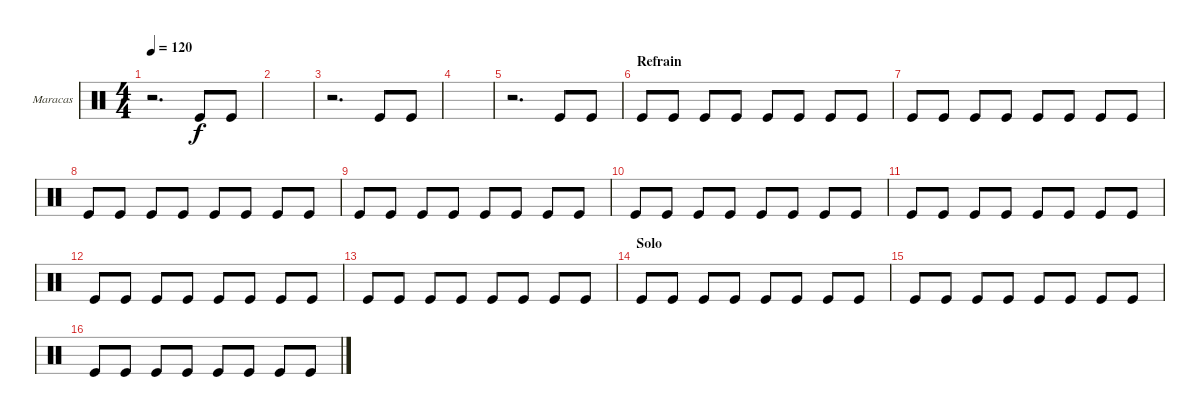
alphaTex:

\defaultSystemsLayout 4
\bracketExtendMode groupsimilarinstruments
\firstSystemTrackNameOrientation horizontal
\otherSystemsTrackNameOrientation horizontal
\track ("Maracas" "Maracas") {multiBarRest instrument percussion}
\staff {score}
\articulation defaults
\ts (4 4)
\tempo 120
\clef neutral
\ks c
r.2{d dy f} "Kick (hit)".8 "Kick (hit)".8 |
|
r.2{d} "Kick (hit)".8 "Kick (hit)".8 |
|
r.2{d} "Kick (hit)".8 "Kick (hit)".8 |
\section ("" "Refrain")
"Kick (hit)".8 "Kick (hit)".8 "Kick (hit)".8 "Kick (hit)".8 "Kick (hit)".8 "Kick (hit)".8 "Kick (hit)".8 "Kick (hit)".8 |
"Kick (hit)".8 "Kick (hit)".8 "Kick (hit)".8 "Kick (hit)".8 "Kick (hit)".8 "Kick (hit)".8 "Kick (hit)".8 "Kick (hit)".8 |
"Kick (hit)".8 "Kick (hit)".8 "Kick (hit)".8 "Kick (hit)".8 "Kick (hit)".8 "Kick (hit)".8 "Kick (hit)".8 "Kick (hit)".8 |
"Kick (hit)".8 "Kick (hit)".8 "Kick (hit)".8 "Kick (hit)".8 "Kick (hit)".8 "Kick (hit)".8 "Kick (hit)".8 "Kick (hit)".8 |
"Kick (hit)".8 "Kick (hit)".8 "Kick (hit)".8 "Kick (hit)".8 "Kick (hit)".8 "Kick (hit)".8 "Kick (hit)".8 "Kick (hit)".8 |
"Kick (hit)".8 "Kick (hit)".8 "Kick (hit)".8 "Kick (hit)".8 "Kick (hit)".8 "Kick (hit)".8 "Kick (hit)".8 "Kick (hit)".8 |
"Kick (hit)".8 "Kick (hit)".8 "Kick (hit)".8 "Kick (hit)".8 "Kick (hit)".8 "Kick (hit)".8 "Kick (hit)".8 "Kick (hit)".8 |
"Kick (hit)".8 "Kick (hit)".8 "Kick (hit)".8 "Kick (hit)".8 "Kick (hit)".8 "Kick (hit)".8 "Kick (hit)".8 "Kick (hit)".8 |
\section ("" "Solo")
"Kick (hit)".8 "Kick (hit)".8 "Kick (hit)".8 "Kick (hit)".8 "Kick (hit)".8 "Kick (hit)".8 "Kick (hit)".8 "Kick (hit)".8 |
"Kick (hit)".8 "Kick (hit)".8 "Kick (hit)".8 "Kick (hit)".8 "Kick (hit)".8 "Kick (hit)".8 "Kick (hit)".8 "Kick (hit)".8 |
"Kick (hit)".8 "Kick (hit)".8 "Kick (hit)".8 "Kick (hit)".8 "Kick (hit)".8 "Kick (hit)".8 "Kick (hit)".8 "Kick (hit)".8
